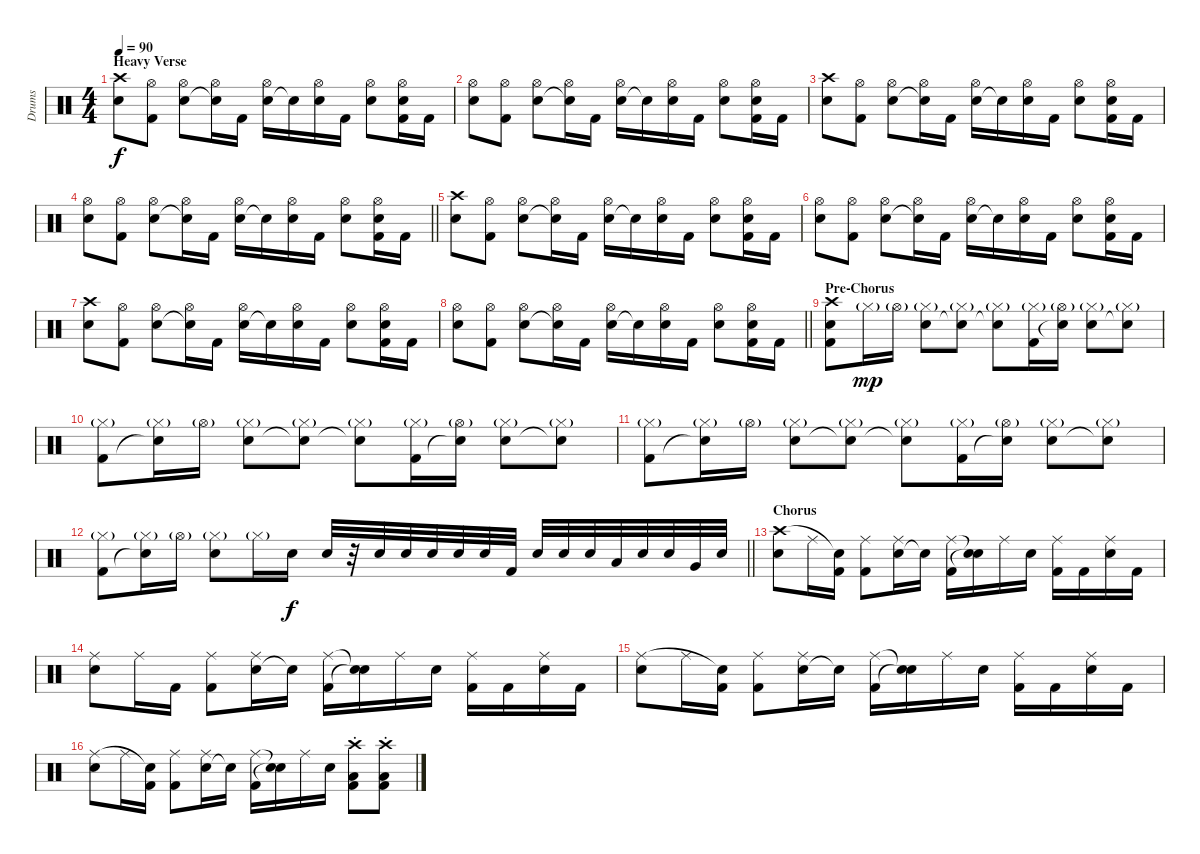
\track ("Drums" "Drums") {instrument percussion}
\staff {score}
\articulation defaults
\ts (4 4)
\section ("" "Heavy Verse")
\tempo 90
\clef neutral
\ks c
("Electric Snare (hit)" "Crash high (hit)").8{dy f} ("Kick (hit) 2" "Hi-Hat (open)").8 ("Electric Snare (hit)" "Hi-Hat (open)").8 ("Snare (hit)"{t} "Hi-Hat (open)").16 "Kick (hit) 2".16 ("Electric Snare (hit)" "Hi-Hat (open)").16 "Snare (hit)"{t}.16 ("Electric Snare (hit)" "Hi-Hat (open)").16 "Kick (hit) 2".16 ("Electric Snare (hit)" "Hi-Hat (open)").8 ("Kick (hit) 2" "Electric Snare (hit)" "Hi-Hat (open)").16 "Kick (hit) 2".16 |
("Electric Snare (hit)" "Hi-Hat (open)").8 ("Kick (hit) 2" "Hi-Hat (open)").8 ("Electric Snare (hit)" "Hi-Hat (open)").8 ("Snare (hit)"{t} "Hi-Hat (open)").16 "Kick (hit) 2".16 ("Electric Snare (hit)" "Hi-Hat (open)").16 "Snare (hit)"{t}.16 ("Electric Snare (hit)" "Hi-Hat (open)").16 "Kick (hit) 2".16 ("Electric Snare (hit)" "Hi-Hat (open)").8 ("Kick (hit) 2" "Electric Snare (hit)" "Hi-Hat (open)").16 "Kick (hit) 2".16 |
("Electric Snare (hit)" "Crash high (hit)").8 ("Kick (hit) 2" "Hi-Hat (open)").8 ("Electric Snare (hit)" "Hi-Hat (open)").8 ("Snare (hit)"{t} "Hi-Hat (open)").16 "Kick (hit) 2".16 ("Electric Snare (hit)" "Hi-Hat (open)").16 "Snare (hit)"{t}.16 ("Electric Snare (hit)" "Hi-Hat (open)").16 "Kick (hit) 2".16 ("Electric Snare (hit)" "Hi-Hat (open)").8 ("Kick (hit) 2" "Electric Snare (hit)" "Hi-Hat (open)").16 "Kick (hit) 2".16 |
\barLineRight lightlight
("Electric Snare (hit)" "Hi-Hat (open)").8 ("Kick (hit) 2" "Hi-Hat (open)").8 ("Electric Snare (hit)" "Hi-Hat (open)").8 ("Snare (hit)"{t} "Hi-Hat (open)").16 "Kick (hit) 2".16 ("Electric Snare (hit)" "Hi-Hat (open)").16 "Snare (hit)"{t}.16 ("Electric Snare (hit)" "Hi-Hat (open)").16 "Kick (hit) 2".16 ("Electric Snare (hit)" "Hi-Hat (open)").8 ("Kick (hit) 2" "Electric Snare (hit)" "Hi-Hat (open)").16 "Kick (hit) 2".16 |
("Electric Snare (hit)" "Crash high (hit)").8 ("Kick (hit) 2" "Hi-Hat (open)").8 ("Electric Snare (hit)" "Hi-Hat (open)").8 ("Snare (hit)"{t} "Hi-Hat (open)").16 "Kick (hit) 2".16 ("Electric Snare (hit)" "Hi-Hat (open)").16 "Snare (hit)"{t}.16 ("Electric Snare (hit)" "Hi-Hat (open)").16 "Kick (hit) 2".16 ("Electric Snare (hit)" "Hi-Hat (open)").8 ("Kick (hit) 2" "Electric Snare (hit)" "Hi-Hat (open)").16 "Kick (hit) 2".16 |
("Electric Snare (hit)" "Hi-Hat (open)").8 ("Kick (hit) 2" "Hi-Hat (open)").8 ("Electric Snare (hit)" "Hi-Hat (open)").8 ("Snare (hit)"{t} "Hi-Hat (open)").16 "Kick (hit) 2".16 ("Electric Snare (hit)" "Hi-Hat (open)").16 "Snare (hit)"{t}.16 ("Electric Snare (hit)" "Hi-Hat (open)").16 "Kick (hit) 2".16 ("Electric Snare (hit)" "Hi-Hat (open)").8 ("Kick (hit) 2" "Electric Snare (hit)" "Hi-Hat (open)").16 "Kick (hit) 2".16 |
("Electric Snare (hit)" "Crash high (hit)").8 ("Kick (hit) 2" "Hi-Hat (open)").8 ("Electric Snare (hit)" "Hi-Hat (open)").8 ("Snare (hit)"{t} "Hi-Hat (open)").16 "Kick (hit) 2".16 ("Electric Snare (hit)" "Hi-Hat (open)").16 "Snare (hit)"{t}.16 ("Electric Snare (hit)" "Hi-Hat (open)").16 "Kick (hit) 2".16 ("Electric Snare (hit)" "Hi-Hat (open)").8 ("Kick (hit) 2" "Electric Snare (hit)" "Hi-Hat (open)").16 "Kick (hit) 2".16 |
\barLineRight lightlight
("Electric Snare (hit)" "Hi-Hat (open)").8 ("Kick (hit) 2" "Hi-Hat (open)").8 ("Electric Snare (hit)" "Hi-Hat (open)").8 ("Snare (hit)"{t} "Hi-Hat (open)").16 "Kick (hit) 2".16 ("Electric Snare (hit)" "Hi-Hat (open)").16 "Snare (hit)"{t}.16 ("Electric Snare (hit)" "Hi-Hat (open)").16 "Kick (hit) 2".16 ("Electric Snare (hit)" "Hi-Hat (open)").8 ("Kick (hit) 2" "Electric Snare (hit)" "Hi-Hat (open)").16 "Kick (hit) 2".16 |
\section ("" "Pre-Chorus")
("Kick (hit) 2" "Electric Snare (hit)" "Crash high (hit)").8 "Hi-Hat (closed)"{g}.16{dy mp} "Hi-Hat (open)"{g}.16 ("Snare (hit) 2" "Hi-Hat (closed)"{g}).8 ("Snare (hit)"{t} "Hi-Hat (closed)"{g}).8 ("Snare (hit)"{t} "Hi-Hat (closed)"{g}).8 ("Kick (hit) 2" "Hi-Hat (closed)"{g}).16 ("Snare (hit)"{t} "Hi-Hat (open)"{g}).16 ("Snare (hit) 2" "Hi-Hat (closed)"{g}).8 ("Snare (hit)"{t} "Hi-Hat (closed)"{g}).8 |
("Kick (hit) 2" "Hi-Hat (closed)"{g}).8 ("Snare (hit)"{t} "Hi-Hat (closed)"{g}).16 "Hi-Hat (open)"{g}.16 ("Snare (hit) 2" "Hi-Hat (closed)"{g}).8 ("Snare (hit)"{t} "Hi-Hat (closed)"{g}).8 ("Snare (hit)"{t} "Hi-Hat (closed)"{g}).8 ("Kick (hit) 2" "Hi-Hat (closed)"{g}).16 ("Snare (hit)"{t} "Hi-Hat (open)"{g}).16 ("Snare (hit) 2" "Hi-Hat (closed)"{g}).8 ("Snare (hit)"{t} "Hi-Hat (closed)"{g}).8 |
("Kick (hit) 2" "Hi-Hat (closed)"{g}).8 ("Snare (hit)"{t} "Hi-Hat (closed)"{g}).16 "Hi-Hat (open)"{g}.16 ("Snare (hit) 2" "Hi-Hat (closed)"{g}).8 ("Snare (hit)"{t} "Hi-Hat (closed)"{g}).8 ("Snare (hit)"{t} "Hi-Hat (closed)"{g}).8 ("Kick (hit) 2" "Hi-Hat (closed)"{g}).16 ("Snare (hit)"{t} "Hi-Hat (open)"{g}).16 ("Snare (hit) 2" "Hi-Hat (closed)"{g}).8 ("Snare (hit)"{t} "Hi-Hat (closed)"{g}).8 |
\barLineRight lightlight
("Kick (hit) 2" "Hi-Hat (closed)"{g}).8 ("Snare (hit)"{t} "Hi-Hat (closed)"{g}).16 "Hi-Hat (open)"{g}.16 ("Snare (hit) 2" "Hi-Hat (closed)"{g}).8 "Hi-Hat (closed)"{g}.16 "Snare (hit) 2".16{dy f} "Snare (hit) 2".32 r.32 "Snare (hit) 2".32 "Snare (hit) 2".32 "Snare (hit) 2".32 "Snare (hit) 2".32 "Snare (hit) 2".32 "Kick (hit) 2".32 "Snare (hit) 2".32 "Snare (hit) 2".32 "Snare (hit) 2".32 "Low Floor Tom (hit)".32 "Snare (hit) 2".32 "Snare (hit) 2".32 "Very Low Tom (hit)".32 "Snare (hit) 2".32 |
\section ("" "Chorus")
("Electric Snare (hit)" "Crash high (hit)").8 "Ride (middle)".16 ("Kick (hit) 2" "Snare (hit)"{t}).16 ("Kick (hit) 2" "Ride (middle)").8 ("Electric Snare (hit)" "Ride (middle)").16 "Snare (hit)"{t}.16 ("Kick (hit) 2" "Ride (middle)").16 ("Snare (hit)"{t} "Snare (hit)"{t}).16 "Ride (middle)".16 "Electric Snare (hit)".16 ("Kick (hit) 2" "Ride (middle)").16 "Kick (hit) 2".16 ("Electric Snare (hit)" "Ride (middle)").16 "Kick (hit) 2".16 |
("Electric Snare (hit)" "Ride (middle)").8 "Ride (middle)".16 "Kick (hit) 2".16 ("Kick (hit) 2" "Ride (middle)").8 ("Electric Snare (hit)" "Ride (middle)").16 "Snare (hit)"{t}.16 ("Kick (hit) 2" "Ride (middle)").16 ("Snare (hit)"{t} "Snare (hit)"{t}).16 "Ride (middle)".16 "Electric Snare (hit)".16 ("Kick (hit) 2" "Ride (middle)").16 "Kick (hit) 2".16 ("Electric Snare (hit)" "Ride (middle)").16 "Kick (hit) 2".16 |
("Electric Snare (hit)" "Ride (middle)").8 "Ride (middle)".16 ("Kick (hit) 2" "Snare (hit)"{t}).16 ("Kick (hit) 2" "Ride (middle)").8 ("Electric Snare (hit)" "Ride (middle)").16 "Snare (hit)"{t}.16 ("Kick (hit) 2" "Ride (middle)").16 ("Snare (hit)"{t} "Snare (hit)"{t}).16 "Ride (middle)".16 "Electric Snare (hit)".16 ("Kick (hit) 2" "Ride (middle)").16 "Kick (hit) 2".16 ("Electric Snare (hit)" "Ride (middle)").16 "Kick (hit) 2".16 |
("Electric Snare (hit)" "Ride (middle)").8 "Ride (middle)".16 ("Kick (hit) 2" "Snare (hit)"{t}).16 ("Kick (hit) 2" "Ride (middle)").8 ("Electric Snare (hit)" "Ride (middle)").16 "Snare (hit)"{t}.16 ("Kick (hit) 2" "Ride (middle)").16 ("Snare (hit)"{t} "Snare (hit)"{t}).16 "Ride (middle)".16 "Electric Snare (hit)".16 ("Kick (hit) 2"{st} "Crash high (hit)"{st} "Low Floor Tom (hit)"{st}).8 ("Kick (hit) 2"{st} "Crash high (hit)"{st} "Low Floor Tom (hit)"{st}).8
